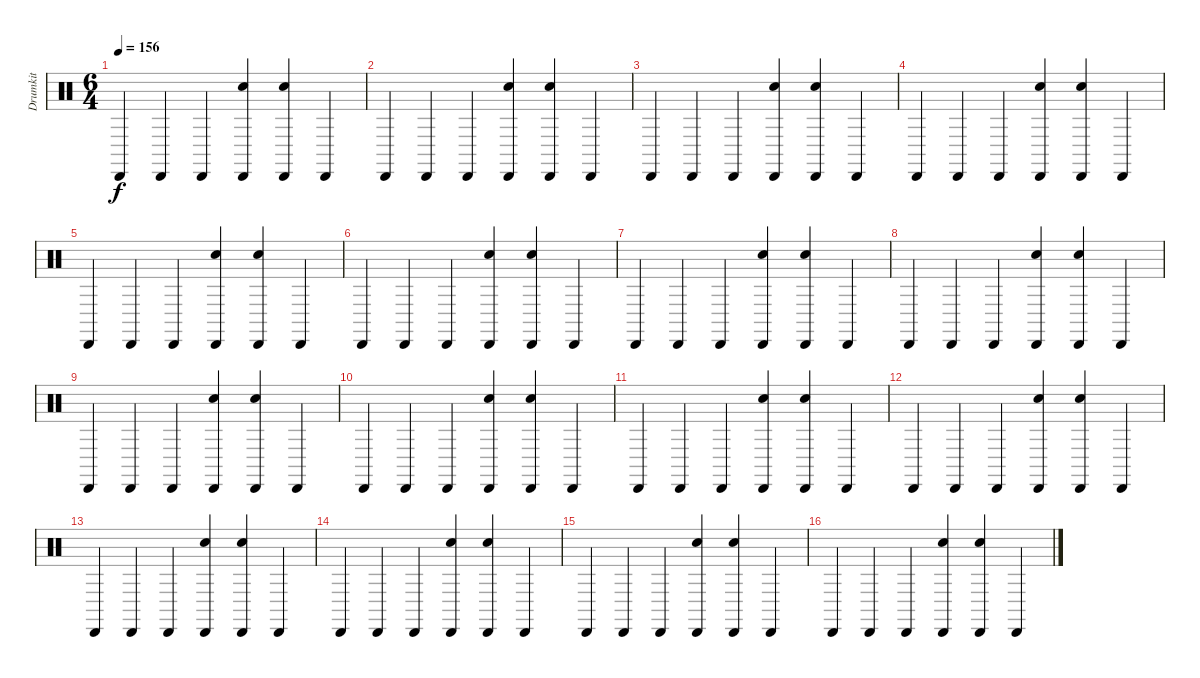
\track ("Drumkit" "Drumkit") {instrument percussion bank 210}
\staff {score}
\articulation defaults
\ts (6 4)
\tempo 156
\clef neutral
\ks c "Cabasa (hit)".4{dy f} "Cabasa (hit)".4 "Cabasa (hit)".4
("Cabasa (hit)" "Snare (hit) 2").4 ("Cabasa (hit)" "Snare (hit) 2").4 "Cabasa (hit)".4 |
"Cabasa (hit)".4 "Cabasa (hit)".4 "Cabasa (hit)".4 ("Cabasa (hit)" "Snare (hit) 2").4 ("Cabasa (hit)" "Snare (hit) 2").4 "Cabasa (hit)".4 |
"Cabasa (hit)".4 "Cabasa (hit)".4 "Cabasa (hit)".4 ("Cabasa (hit)" "Snare (hit) 2").4 ("Cabasa (hit)" "Snare (hit) 2").4 "Cabasa (hit)".4 |
"Cabasa (hit)".4 "Cabasa (hit)".4 "Cabasa (hit)".4 ("Cabasa (hit)" "Snare (hit) 2").4 ("Cabasa (hit)" "Snare (hit) 2").4 "Cabasa (hit)".4 |
"Cabasa (hit)".4 "Cabasa (hit)".4 "Cabasa (hit)".4 ("Cabasa (hit)" "Snare (hit) 2").4 ("Cabasa (hit)" "Snare (hit) 2").4 "Cabasa (hit)".4 |
"Cabasa (hit)".4 "Cabasa (hit)".4 "Cabasa (hit)".4 ("Cabasa (hit)" "Snare (hit) 2").4 ("Cabasa (hit)" "Snare (hit) 2").4 "Cabasa (hit)".4 |
"Cabasa (hit)".4 "Cabasa (hit)".4 "Cabasa (hit)".4 ("Cabasa (hit)" "Snare (hit) 2").4 ("Cabasa (hit)" "Snare (hit) 2").4 "Cabasa (hit)".4 |
"Cabasa (hit)".4 "Cabasa (hit)".4 "Cabasa (hit)".4 ("Cabasa (hit)" "Snare (hit) 2").4 ("Cabasa (hit)" "Snare (hit) 2").4 "Cabasa (hit)".4 |
"Cabasa (hit)".4 "Cabasa (hit)".4 "Cabasa (hit)".4 ("Cabasa (hit)" "Snare (hit) 2").4 ("Cabasa (hit)" "Snare (hit) 2").4 "Cabasa (hit)".4 |
"Cabasa (hit)".4 "Cabasa (hit)".4 "Cabasa (hit)".4 ("Cabasa (hit)" "Snare (hit) 2").4 ("Cabasa (hit)" "Snare (hit) 2").4 "Cabasa (hit)".4 |
"Cabasa (hit)".4 "Cabasa (hit)".4 "Cabasa (hit)".4 ("Cabasa (hit)" "Snare (hit) 2").4 ("Cabasa (hit)" "Snare (hit) 2").4 "Cabasa (hit)".4 |
"Cabasa (hit)".4 "Cabasa (hit)".4 "Cabasa (hit)".4 ("Cabasa (hit)" "Snare (hit) 2").4 ("Cabasa (hit)" "Snare (hit) 2").4 "Cabasa (hit)".4 |
"Cabasa (hit)".4 "Cabasa (hit)".4 "Cabasa (hit)".4 ("Cabasa (hit)" "Snare (hit) 2").4 ("Cabasa (hit)" "Snare (hit) 2").4 "Cabasa (hit)".4 |
"Cabasa (hit)".4 "Cabasa (hit)".4 "Cabasa (hit)".4 ("Cabasa (hit)" "Snare (hit) 2").4 ("Cabasa (hit)" "Snare (hit) 2").4 "Cabasa (hit)".4 |
"Cabasa (hit)".4 "Cabasa (hit)".4 "Cabasa (hit)".4 ("Cabasa (hit)" "Snare (hit) 2").4 ("Cabasa (hit)" "Snare (hit) 2").4 "Cabasa (hit)".4 |
"Cabasa (hit)".4 "Cabasa (hit)".4 "Cabasa (hit)".4 ("Cabasa (hit)" "Snare (hit) 2").4 ("Cabasa (hit)" "Snare (hit) 2").4 "Cabasa (hit)".4
